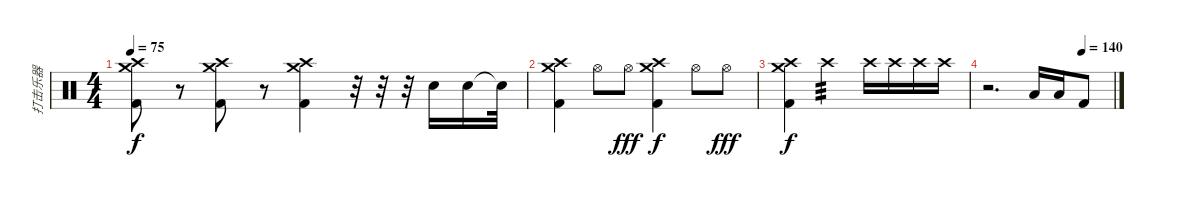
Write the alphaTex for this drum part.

\track ("打击乐器" "打击乐器") {instrument percussion}
\staff {score}
\articulation defaults
\ts (4 4)
\tempo 75
\clef neutral
\ks c
("Crash high (hit)" "Crash medium (hit)" "Kick (hit) 2").8{dy f} r.8 ("Crash high (hit)" "Crash medium (hit)" "Kick (hit) 2").8 r.8 ("Crash high (hit)" "Crash medium (hit)" "Kick (hit) 2").4 r.32 r.32 r.32 "Electric Snare (hit)".16 "Electric Snare (hit)".16 "Snare (hit)"{t}.32 |
("Crash high (hit)" "Crash medium (hit)" "Kick (hit) 2").4 "Hi-Hat (open)".8 "Hi-Hat (open)".8{dy fff} ("Crash high (hit)" "Crash medium (hit)" "Kick (hit) 2").4{dy f} "Hi-Hat (open)".8 "Hi-Hat (open)".8{dy fff} |
("Crash high (hit)" "Crash medium (hit)" "Kick (hit) 2").4{dy f} "Crash high (hit)".2{tp 3} "Crash high (hit)".16 "Crash high (hit)".16 "Crash high (hit)".16 "Crash high (hit)".16 |
\tempo (140 0.75)
r.2{d} "Low Floor Tom (hit)".16 "Low Floor Tom (hit)".16 "Kick (hit) 2".8
